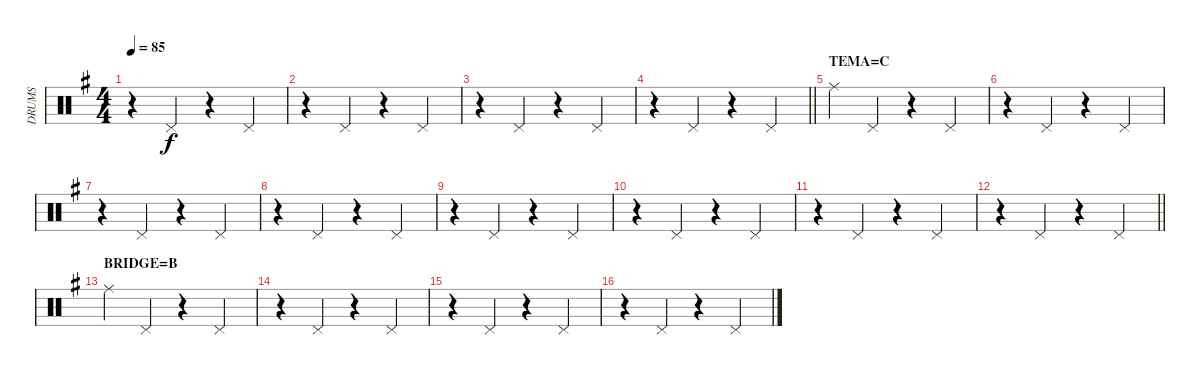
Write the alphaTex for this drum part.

\track ("DRUMS" "DRUMS") {instrument percussion}
\staff {score}
\articulation defaults
\ts (4 4)
\tempo 85
\clef neutral
\ks g
r.4{dy f} "Pedal Hi-Hat (hit)".4 r.4 "Pedal Hi-Hat (hit)".4 |
r.4 "Pedal Hi-Hat (hit)".4 r.4 "Pedal Hi-Hat (hit)".4 |
r.4 "Pedal Hi-Hat (hit)".4 r.4 "Pedal Hi-Hat (hit)".4 |
\barLineRight lightlight
r.4 "Pedal Hi-Hat (hit)".4 r.4 "Pedal Hi-Hat (hit)".4 |
\section ("" "TEMA=C")
"Ride (middle)".4 "Pedal Hi-Hat (hit)".4 r.4 "Pedal Hi-Hat (hit)".4 |
r.4 "Pedal Hi-Hat (hit)".4 r.4 "Pedal Hi-Hat (hit)".4 |
r.4 "Pedal Hi-Hat (hit)".4 r.4 "Pedal Hi-Hat (hit)".4 |
r.4 "Pedal Hi-Hat (hit)".4 r.4 "Pedal Hi-Hat (hit)".4 |
r.4 "Pedal Hi-Hat (hit)".4 r.4 "Pedal Hi-Hat (hit)".4 |
r.4 "Pedal Hi-Hat (hit)".4 r.4 "Pedal Hi-Hat (hit)".4 |
r.4 "Pedal Hi-Hat (hit)".4 r.4 "Pedal Hi-Hat (hit)".4 |
\barLineRight lightlight
r.4 "Pedal Hi-Hat (hit)".4 r.4 "Pedal Hi-Hat (hit)".4 |
\section ("" "BRIDGE=B")
"Ride (middle)".4 "Pedal Hi-Hat (hit)".4 r.4 "Pedal Hi-Hat (hit)".4 |
r.4 "Pedal Hi-Hat (hit)".4 r.4 "Pedal Hi-Hat (hit)".4 |
r.4 "Pedal Hi-Hat (hit)".4 r.4 "Pedal Hi-Hat (hit)".4 |
r.4 "Pedal Hi-Hat (hit)".4 r.4 "Pedal Hi-Hat (hit)".4
